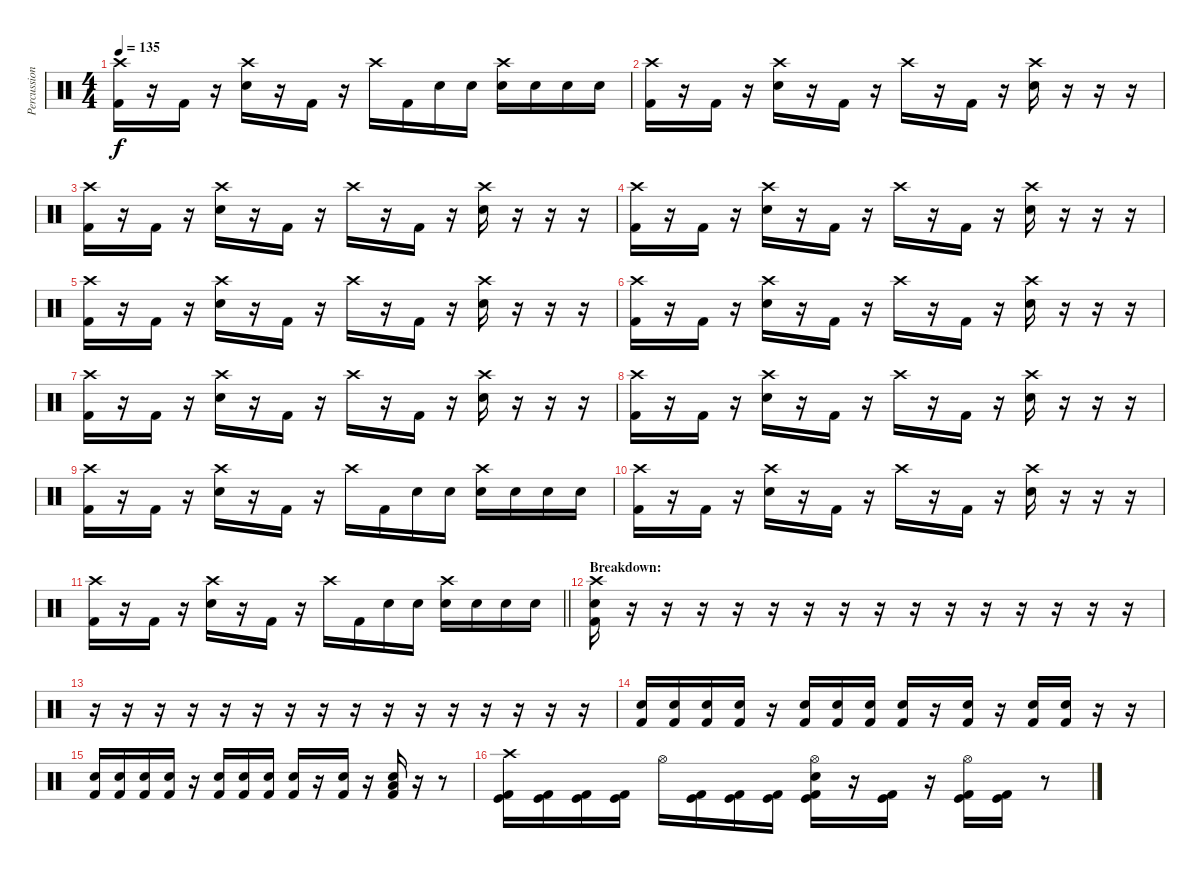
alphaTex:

\track ("Percussion" "Percussion") {instrument percussion}
\staff {score}
\articulation defaults
\ts (4 4)
\tempo 135
\clef neutral
\ks c
("Crash high (hit)" "Kick (hit) 2").16{dy f} r.16 "Kick (hit) 2".16 r.16 ("Crash high (hit)" "Electric Snare (hit)").16 r.16 "Kick (hit) 2".16 r.16 "Crash high (hit)".16 "Kick (hit) 2".16 "Electric Snare (hit)".16 "Electric Snare (hit)".16 ("Crash high (hit)" "Electric Snare (hit)").16 "Electric Snare (hit)".16 "Electric Snare (hit)".16 "Electric Snare (hit)".16 |
("Crash high (hit)" "Kick (hit) 2").16 r.16 "Kick (hit) 2".16 r.16 ("Crash high (hit)" "Electric Snare (hit)").16 r.16 "Kick (hit) 2".16 r.16 "Crash high (hit)".16 r.16 "Kick (hit) 2".16 r.16 ("Crash high (hit)" "Electric Snare (hit)").16 r.16 r.16 r.16 |
("Crash high (hit)" "Kick (hit) 2").16 r.16 "Kick (hit) 2".16 r.16 ("Crash high (hit)" "Electric Snare (hit)").16 r.16 "Kick (hit) 2".16 r.16 "Crash high (hit)".16 r.16 "Kick (hit) 2".16 r.16 ("Crash high (hit)" "Electric Snare (hit)").16 r.16 r.16 r.16 |
("Crash high (hit)" "Kick (hit) 2").16 r.16 "Kick (hit) 2".16 r.16 ("Crash high (hit)" "Electric Snare (hit)").16 r.16 "Kick (hit) 2".16 r.16 "Crash high (hit)".16 r.16 "Kick (hit) 2".16 r.16 ("Crash high (hit)" "Electric Snare (hit)").16 r.16 r.16 r.16 |
("Crash high (hit)" "Kick (hit) 2").16 r.16 "Kick (hit) 2".16 r.16 ("Crash high (hit)" "Electric Snare (hit)").16 r.16 "Kick (hit) 2".16 r.16 "Crash high (hit)".16 r.16 "Kick (hit) 2".16 r.16 ("Crash high (hit)" "Electric Snare (hit)").16 r.16 r.16 r.16 |
("Crash high (hit)" "Kick (hit) 2").16 r.16 "Kick (hit) 2".16 r.16 ("Crash high (hit)" "Electric Snare (hit)").16 r.16 "Kick (hit) 2".16 r.16 "Crash high (hit)".16 r.16 "Kick (hit) 2".16 r.16 ("Crash high (hit)" "Electric Snare (hit)").16 r.16 r.16 r.16 |
("Crash high (hit)" "Kick (hit) 2").16 r.16 "Kick (hit) 2".16 r.16 ("Crash high (hit)" "Electric Snare (hit)").16 r.16 "Kick (hit) 2".16 r.16 "Crash high (hit)".16 r.16 "Kick (hit) 2".16 r.16 ("Crash high (hit)" "Electric Snare (hit)").16 r.16 r.16 r.16 |
("Crash high (hit)" "Kick (hit) 2").16 r.16 "Kick (hit) 2".16 r.16 ("Crash high (hit)" "Electric Snare (hit)").16 r.16 "Kick (hit) 2".16 r.16 "Crash high (hit)".16 r.16 "Kick (hit) 2".16 r.16 ("Crash high (hit)" "Electric Snare (hit)").16 r.16 r.16 r.16 |
("Crash high (hit)" "Kick (hit) 2").16 r.16 "Kick (hit) 2".16 r.16 ("Crash high (hit)" "Electric Snare (hit)").16 r.16 "Kick (hit) 2".16 r.16 "Crash high (hit)".16 "Kick (hit) 2".16 "Electric Snare (hit)".16 "Electric Snare (hit)".16 ("Crash high (hit)" "Electric Snare (hit)").16 "Electric Snare (hit)".16 "Electric Snare (hit)".16 "Electric Snare (hit)".16 |
("Crash high (hit)" "Kick (hit) 2").16 r.16 "Kick (hit) 2".16 r.16 ("Crash high (hit)" "Electric Snare (hit)").16 r.16 "Kick (hit) 2".16 r.16 "Crash high (hit)".16 r.16 "Kick (hit) 2".16 r.16 ("Crash high (hit)" "Electric Snare (hit)").16 r.16 r.16 r.16 |
\barLineRight lightlight
("Crash high (hit)" "Kick (hit) 2").16 r.16 "Kick (hit) 2".16 r.16 ("Crash high (hit)" "Electric Snare (hit)").16 r.16 "Kick (hit) 2".16 r.16 "Crash high (hit)".16 "Kick (hit) 2".16 "Electric Snare (hit)".16 "Electric Snare (hit)".16 ("Crash high (hit)" "Electric Snare (hit)").16 "Electric Snare (hit)".16 "Electric Snare (hit)".16 "Electric Snare (hit)".16 |
\section ("" "Breakdown:")
("Crash high (hit)" "Electric Snare (hit)" "Kick (hit) 2").16 r.16 r.16 r.16 r.16 r.16 r.16 r.16 r.16 r.16 r.16 r.16 r.16 r.16 r.16 r.16 |
r.16 r.16 r.16 r.16 r.16 r.16 r.16 r.16 r.16 r.16 r.16 r.16 r.16 r.16 r.16 r.16 |
("Electric Snare (hit)" "Kick (hit) 2").16 ("Electric Snare (hit)" "Kick (hit) 2").16 ("Electric Snare (hit)" "Kick (hit) 2").16 ("Electric Snare (hit)" "Kick (hit) 2").16 r.16 ("Electric Snare (hit)" "Kick (hit) 2").16 ("Electric Snare (hit)" "Kick (hit) 2").16 ("Electric Snare (hit)" "Kick (hit) 2").16 ("Electric Snare (hit)" "Kick (hit) 2").16 r.16 ("Electric Snare (hit)" "Kick (hit) 2").16 r.16 ("Electric Snare (hit)" "Kick (hit) 2").16 ("Electric Snare (hit)" "Kick (hit) 2").16 r.16 r.16 |
("Electric Snare (hit)" "Kick (hit) 2").16 ("Electric Snare (hit)" "Kick (hit) 2").16 ("Electric Snare (hit)" "Kick (hit) 2").16 ("Electric Snare (hit)" "Kick (hit) 2").16 r.16 ("Electric Snare (hit)" "Kick (hit) 2").16 ("Electric Snare (hit)" "Kick (hit) 2").16 ("Electric Snare (hit)" "Kick (hit) 2").16 ("Electric Snare (hit)" "Kick (hit) 2").16 r.16 ("Electric Snare (hit)" "Kick (hit) 2").16 r.16 ("Low Floor Tom (hit)" "Electric Snare (hit)" "Kick (hit) 2").16 r.16 r.8 |
("Crash high (hit)" "Kick (hit)" "Kick (hit) 2").16 ("Kick (hit)" "Kick (hit) 2").16 ("Kick (hit)" "Kick (hit) 2").16 ("Kick (hit)" "Kick (hit) 2").16 "Hi-Hat (open)".16 ("Kick (hit)" "Kick (hit) 2").16 ("Kick (hit)" "Kick (hit) 2").16 ("Kick (hit)" "Kick (hit) 2").16 ("Hi-Hat (open)" "Electric Snare (hit)" "Kick (hit)" "Kick (hit) 2").16 r.16 ("Kick (hit)" "Kick (hit) 2").16 r.16 ("Hi-Hat (open)" "Kick (hit)" "Kick (hit) 2").16 ("Kick (hit)" "Kick (hit) 2").16 r.8
